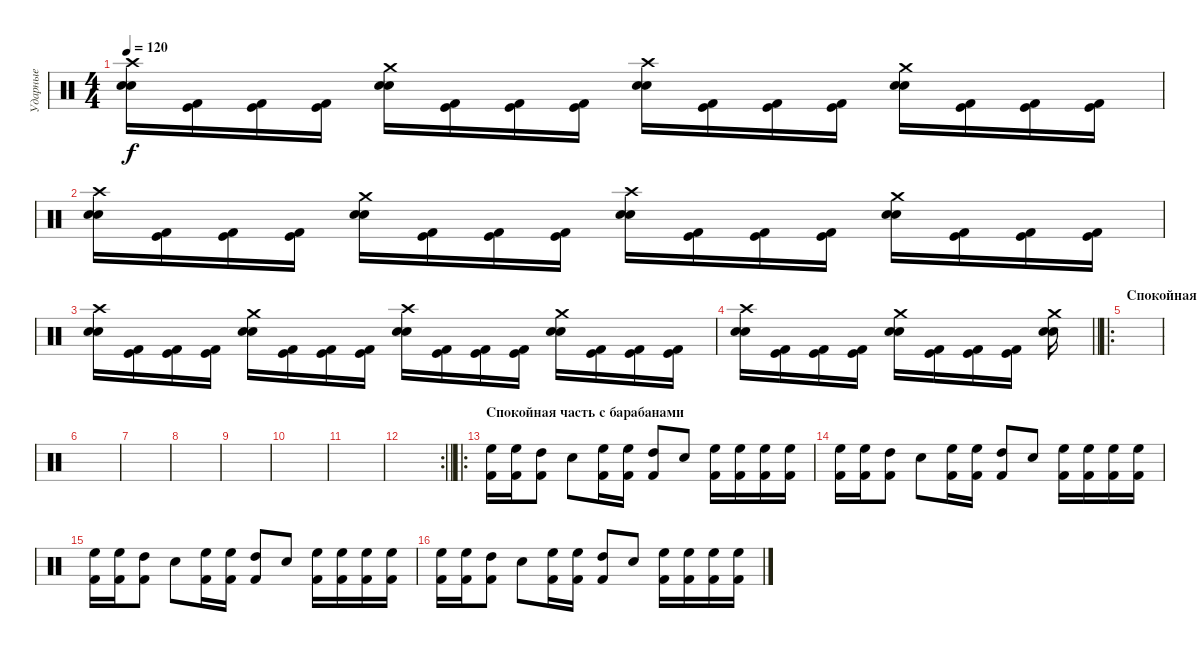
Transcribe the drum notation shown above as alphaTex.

\track ("Ударные" "Ударные") {instrument percussion}
\staff {score}
\articulation defaults
\ts (4 4)
\tempo 120
\clef neutral
\ks c
("Crash high (hit)" "Snare (hit) 2" "Electric Snare (hit)").16{dy f} ("Kick (hit)" "Kick (hit) 2").16 ("Kick (hit)" "Kick (hit) 2").16 ("Kick (hit)" "Kick (hit) 2").16 ("Crash medium (hit)" "Snare (hit) 2" "Electric Snare (hit)").16 ("Kick (hit)" "Kick (hit) 2").16 ("Kick (hit)" "Kick (hit) 2").16 ("Kick (hit)" "Kick (hit) 2").16 ("Crash high (hit)" "Snare (hit) 2" "Electric Snare (hit)").16 ("Kick (hit)" "Kick (hit) 2").16 ("Kick (hit)" "Kick (hit) 2").16 ("Kick (hit)" "Kick (hit) 2").16 ("Crash medium (hit)" "Snare (hit) 2" "Electric Snare (hit)").16 ("Kick (hit)" "Kick (hit) 2").16 ("Kick (hit)" "Kick (hit) 2").16 ("Kick (hit)" "Kick (hit) 2").16 |
("Crash high (hit)" "Snare (hit) 2" "Electric Snare (hit)").16 ("Kick (hit)" "Kick (hit) 2").16 ("Kick (hit)" "Kick (hit) 2").16 ("Kick (hit)" "Kick (hit) 2").16 ("Crash medium (hit)" "Snare (hit) 2" "Electric Snare (hit)").16 ("Kick (hit)" "Kick (hit) 2").16 ("Kick (hit)" "Kick (hit) 2").16 ("Kick (hit)" "Kick (hit) 2").16 ("Crash high (hit)" "Snare (hit) 2" "Electric Snare (hit)").16 ("Kick (hit)" "Kick (hit) 2").16 ("Kick (hit)" "Kick (hit) 2").16 ("Kick (hit)" "Kick (hit) 2").16 ("Crash medium (hit)" "Snare (hit) 2" "Electric Snare (hit)").16 ("Kick (hit)" "Kick (hit) 2").16 ("Kick (hit)" "Kick (hit) 2").16 ("Kick (hit)" "Kick (hit) 2").16 |
("Crash high (hit)" "Snare (hit) 2" "Electric Snare (hit)").16 ("Kick (hit)" "Kick (hit) 2").16 ("Kick (hit)" "Kick (hit) 2").16 ("Kick (hit)" "Kick (hit) 2").16 ("Crash medium (hit)" "Snare (hit) 2" "Electric Snare (hit)").16 ("Kick (hit)" "Kick (hit) 2").16 ("Kick (hit)" "Kick (hit) 2").16 ("Kick (hit)" "Kick (hit) 2").16 ("Crash high (hit)" "Snare (hit) 2" "Electric Snare (hit)").16 ("Kick (hit)" "Kick (hit) 2").16 ("Kick (hit)" "Kick (hit) 2").16 ("Kick (hit)" "Kick (hit) 2").16 ("Crash medium (hit)" "Snare (hit) 2" "Electric Snare (hit)").16 ("Kick (hit)" "Kick (hit) 2").16 ("Kick (hit)" "Kick (hit) 2").16 ("Kick (hit)" "Kick (hit) 2").16 |
\barLineRight lightlight
("Crash high (hit)" "Snare (hit) 2" "Electric Snare (hit)").16 ("Kick (hit)" "Kick (hit) 2").16 ("Kick (hit)" "Kick (hit) 2").16 ("Kick (hit)" "Kick (hit) 2").16 ("Crash medium (hit)" "Snare (hit) 2" "Electric Snare (hit)").16 ("Kick (hit)" "Kick (hit) 2").16 ("Kick (hit)" "Kick (hit) 2").16 ("Kick (hit)" "Kick (hit) 2").16 ("Crash medium (hit)" "Snare (hit) 2" "Electric Snare (hit)").16 |
\ro
\section ("" "Спокойная часть")
|
|
|
|
|
|
|
\rc 2
\barLineRight lightlight
|
\ro
\section ("" "Спокойная часть с барабанами")
("High Floor Tom (hit)" "Kick (hit) 2").16 ("High Floor Tom (hit)" "Kick (hit) 2").16 ("High Tom (hit)" "Kick (hit) 2").8 "Snare (hit) 2".8 ("High Floor Tom (hit)" "Kick (hit) 2").16 ("High Floor Tom (hit)" "Kick (hit) 2").16 ("High Tom (hit)" "Kick (hit) 2").8 "Snare (hit) 2".8 ("High Floor Tom (hit)" "Kick (hit) 2").16 ("High Floor Tom (hit)" "Kick (hit) 2").16 ("High Floor Tom (hit)" "Kick (hit) 2").16 ("High Floor Tom (hit)" "Kick (hit) 2").16 |
("High Floor Tom (hit)" "Kick (hit) 2").16 ("High Floor Tom (hit)" "Kick (hit) 2").16 ("High Tom (hit)" "Kick (hit) 2").8 "Snare (hit) 2".8 ("High Floor Tom (hit)" "Kick (hit) 2").16 ("High Floor Tom (hit)" "Kick (hit) 2").16 ("High Tom (hit)" "Kick (hit) 2").8 "Snare (hit) 2".8 ("High Floor Tom (hit)" "Kick (hit) 2").16 ("High Floor Tom (hit)" "Kick (hit) 2").16 ("High Floor Tom (hit)" "Kick (hit) 2").16 ("High Floor Tom (hit)" "Kick (hit) 2").16 |
("High Floor Tom (hit)" "Kick (hit) 2").16 ("High Floor Tom (hit)" "Kick (hit) 2").16 ("High Tom (hit)" "Kick (hit) 2").8 "Snare (hit) 2".8 ("High Floor Tom (hit)" "Kick (hit) 2").16 ("High Floor Tom (hit)" "Kick (hit) 2").16 ("High Tom (hit)" "Kick (hit) 2").8 "Snare (hit) 2".8 ("High Floor Tom (hit)" "Kick (hit) 2").16 ("High Floor Tom (hit)" "Kick (hit) 2").16 ("High Floor Tom (hit)" "Kick (hit) 2").16 ("High Floor Tom (hit)" "Kick (hit) 2").16 |
("High Floor Tom (hit)" "Kick (hit) 2").16 ("High Floor Tom (hit)" "Kick (hit) 2").16 ("High Tom (hit)" "Kick (hit) 2").8 "Snare (hit) 2".8 ("High Floor Tom (hit)" "Kick (hit) 2").16 ("High Floor Tom (hit)" "Kick (hit) 2").16 ("High Tom (hit)" "Kick (hit) 2").8 "Snare (hit) 2".8 ("High Floor Tom (hit)" "Kick (hit) 2").16 ("High Floor Tom (hit)" "Kick (hit) 2").16 ("High Floor Tom (hit)" "Kick (hit) 2").16 ("High Floor Tom (hit)" "Kick (hit) 2").16
